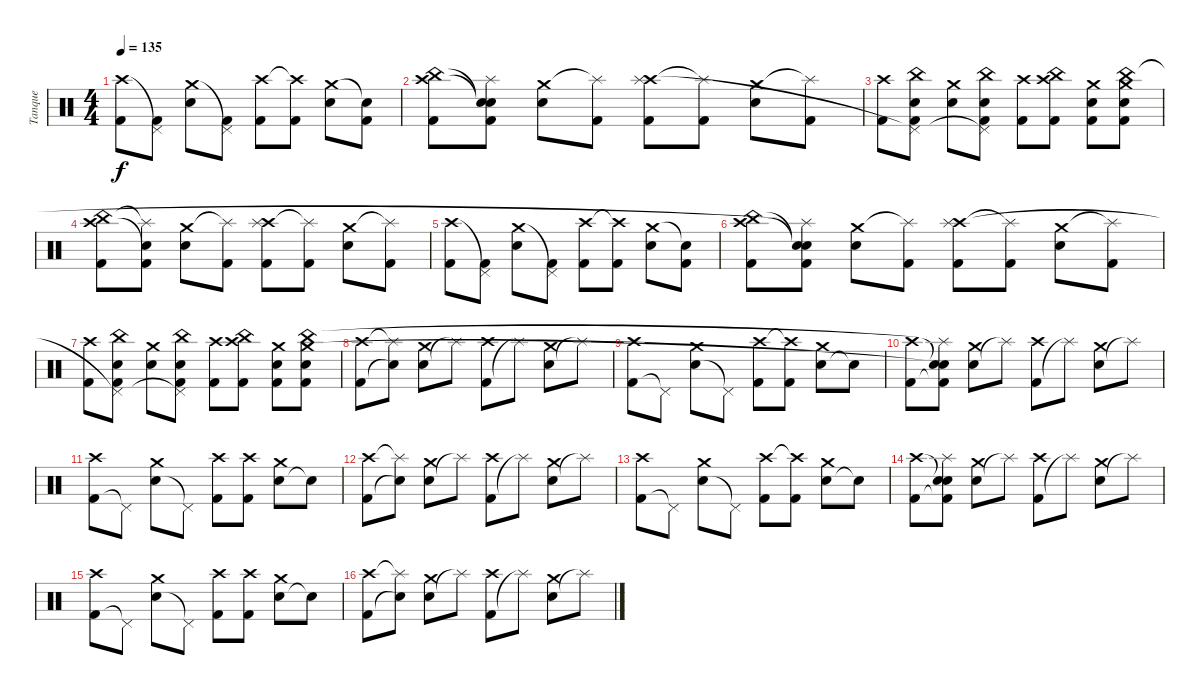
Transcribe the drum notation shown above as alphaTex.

\track ("Tanque" "Tanque") {instrument percussion}
\staff {score}
\articulation defaults
\ts (4 4)
\tempo 135
\clef neutral
\ks c
("Kick (hit) 2" "Crash high (hit)").8{dy f} ("Kick (hit) 2" "Pedal Hi-Hat (hit)"{t}).8 ("Snare (hit) 2" "Crash medium (hit)").8 ("Kick (hit) 2" "Pedal Hi-Hat (hit)"{t}).8 ("Kick (hit) 2" "Crash high (hit)").8 ("Kick (hit) 2" "Crash high (hit)"{t}).8 ("Snare (hit) 2" "Crash medium (hit)").8 ("Kick (hit) 2" "Snare (hit)"{t}).8 |
("Kick (hit) 2" "Crash high (hit)" "China (hit)").8 ("Kick (hit) 2" "Snare (hit)"{t} "Snare (hit)"{t} "Splash (hit)"{t}).8 ("Snare (hit) 2" "Crash medium (hit)").8 ("Kick (hit) 2" "Splash (hit)"{t}).8 ("Kick (hit) 2" "Crash high (hit)" "Splash (hit)").8 ("Kick (hit) 2" "Splash (hit)"{t}).8 ("Snare (hit) 2" "Crash medium (hit)").8 ("Kick (hit) 2" "Splash (hit)"{t}).8 |
("Kick (hit) 2" "Crash high (hit)").8 ("Kick (hit) 2" "Snare (hit) 2" "Pedal Hi-Hat (hit)"{t} "China (hit)").8 ("Snare (hit) 2" "Crash medium (hit)").8 ("Kick (hit) 2" "Snare (hit) 2" "Pedal Hi-Hat (hit)"{t} "China (hit)").8 ("Kick (hit) 2" "Crash high (hit)").8 ("Kick (hit) 2" "Crash high (hit)" "China (hit)").8 ("Kick (hit) 2" "Snare (hit) 2" "Crash medium (hit)").8 ("Kick (hit) 2" "Snare (hit) 2" "Crash medium (hit)" "China (hit)").8 |
("Kick (hit) 2" "Crash high (hit)" "China (hit)").8 ("Kick (hit) 2" "Snare (hit)"{t} "Splash (hit)"{t}).8 ("Snare (hit) 2" "Crash medium (hit)").8 ("Kick (hit) 2" "Splash (hit)"{t}).8 ("Kick (hit) 2" "Crash high (hit)" "Splash (hit)").8 ("Kick (hit) 2" "Splash (hit)"{t}).8 ("Snare (hit) 2" "Crash medium (hit)").8 ("Kick (hit) 2" "Splash (hit)"{t}).8 |
("Kick (hit) 2" "Crash high (hit)").8 ("Kick (hit) 2" "Pedal Hi-Hat (hit)"{t}).8 ("Snare (hit) 2" "Crash medium (hit)").8 ("Kick (hit) 2" "Pedal Hi-Hat (hit)"{t}).8 ("Kick (hit) 2" "Crash high (hit)").8 ("Kick (hit) 2" "Crash high (hit)"{t}).8 ("Snare (hit) 2" "Crash medium (hit)").8 ("Kick (hit) 2" "Snare (hit)"{t}).8 |
("Kick (hit) 2" "Crash high (hit)" "China (hit)").8 ("Kick (hit) 2" "Snare (hit)"{t} "Snare (hit)"{t} "Splash (hit)"{t}).8 ("Snare (hit) 2" "Crash medium (hit)").8 ("Kick (hit) 2" "Splash (hit)"{t}).8 ("Kick (hit) 2" "Crash high (hit)" "Splash (hit)").8 ("Kick (hit) 2" "Splash (hit)"{t}).8 ("Snare (hit) 2" "Crash medium (hit)").8 ("Kick (hit) 2" "Splash (hit)"{t}).8 |
("Kick (hit) 2" "Crash high (hit)").8 ("Kick (hit) 2" "Snare (hit) 2" "Pedal Hi-Hat (hit)"{t} "China (hit)").8 ("Snare (hit) 2" "Crash medium (hit)").8 ("Kick (hit) 2" "Snare (hit) 2" "Pedal Hi-Hat (hit)"{t} "China (hit)").8 ("Kick (hit) 2" "Crash high (hit)").8 ("Kick (hit) 2" "Crash high (hit)" "China (hit)").8 ("Kick (hit) 2" "Snare (hit) 2" "Crash medium (hit)").8 ("Kick (hit) 2" "Snare (hit) 2" "Crash medium (hit)" "China (hit)").8 |
("Kick (hit) 2" "Crash high (hit)").8 ("Snare (hit)"{t} "Splash (hit)"{t}).8 ("Snare (hit) 2" "Crash medium (hit)").8 "Splash (hit)"{t}.8 ("Kick (hit) 2" "Crash high (hit)").8 "Splash (hit)"{t}.8 ("Snare (hit) 2" "Crash medium (hit)").8 "Splash (hit)"{t}.8 |
("Kick (hit) 2" "Crash high (hit)").8 "Pedal Hi-Hat (hit)"{t}.8 ("Snare (hit) 2" "Crash medium (hit)").8 "Pedal Hi-Hat (hit)"{t}.8 ("Kick (hit) 2" "Crash high (hit)").8 ("Kick (hit) 2" "Crash high (hit)"{t}).8 ("Snare (hit) 2" "Crash medium (hit)").8 "Snare (hit)"{t}.8 |
("Kick (hit) 2" "Crash high (hit)").8 ("Kick (hit) 2"{t} "Snare (hit)"{t} "Snare (hit)"{t} "Splash (hit)"{t}).8 ("Snare (hit) 2" "Crash medium (hit)").8 "Splash (hit)"{t}.8 ("Kick (hit) 2" "Crash high (hit)").8 "Splash (hit)"{t}.8 ("Snare (hit) 2" "Crash medium (hit)").8 "Splash (hit)"{t}.8 |
("Kick (hit) 2" "Crash high (hit)").8 "Pedal Hi-Hat (hit)"{t}.8 ("Snare (hit) 2" "Crash medium (hit)").8 "Pedal Hi-Hat (hit)"{t}.8 ("Kick (hit) 2" "Crash high (hit)").8 ("Kick (hit) 2" "Crash high (hit)").8 ("Snare (hit) 2" "Crash medium (hit)").8 "Snare (hit)"{t}.8 |
("Kick (hit) 2" "Crash high (hit)").8 ("Snare (hit)"{t} "Splash (hit)"{t}).8 ("Snare (hit) 2" "Crash medium (hit)").8 "Splash (hit)"{t}.8 ("Kick (hit) 2" "Crash high (hit)").8 "Splash (hit)"{t}.8 ("Snare (hit) 2" "Crash medium (hit)").8 "Splash (hit)"{t}.8 |
("Kick (hit) 2" "Crash high (hit)").8 "Pedal Hi-Hat (hit)"{t}.8 ("Snare (hit) 2" "Crash medium (hit)").8 "Pedal Hi-Hat (hit)"{t}.8 ("Kick (hit) 2" "Crash high (hit)").8 ("Kick (hit) 2" "Crash high (hit)"{t}).8 ("Snare (hit) 2" "Crash medium (hit)").8 "Snare (hit)"{t}.8 |
("Kick (hit) 2" "Crash high (hit)").8 ("Kick (hit) 2"{t} "Snare (hit)"{t} "Snare (hit)" "Splash (hit)").8 ("Snare (hit) 2" "Crash medium (hit)").8 "Splash (hit)"{t}.8 ("Kick (hit) 2" "Crash high (hit)").8 "Splash (hit)"{t}.8 ("Snare (hit) 2" "Crash medium (hit)").8 "Splash (hit)"{t}.8 |
("Kick (hit) 2" "Crash high (hit)").8 "Pedal Hi-Hat (hit)"{t}.8 ("Snare (hit) 2" "Crash medium (hit)").8 "Pedal Hi-Hat (hit)"{t}.8 ("Kick (hit) 2" "Crash high (hit)").8 ("Kick (hit) 2" "Crash high (hit)").8 ("Snare (hit) 2" "Crash medium (hit)").8 "Snare (hit)"{t}.8 |
("Kick (hit) 2" "Crash high (hit)").8 ("Snare (hit)"{t} "Splash (hit)"{t}).8 ("Snare (hit) 2" "Crash medium (hit)").8 "Splash (hit)"{t}.8 ("Kick (hit) 2" "Crash high (hit)").8 "Splash (hit)"{t}.8 ("Snare (hit) 2" "Crash medium (hit)").8 "Splash (hit)"{t}.8
